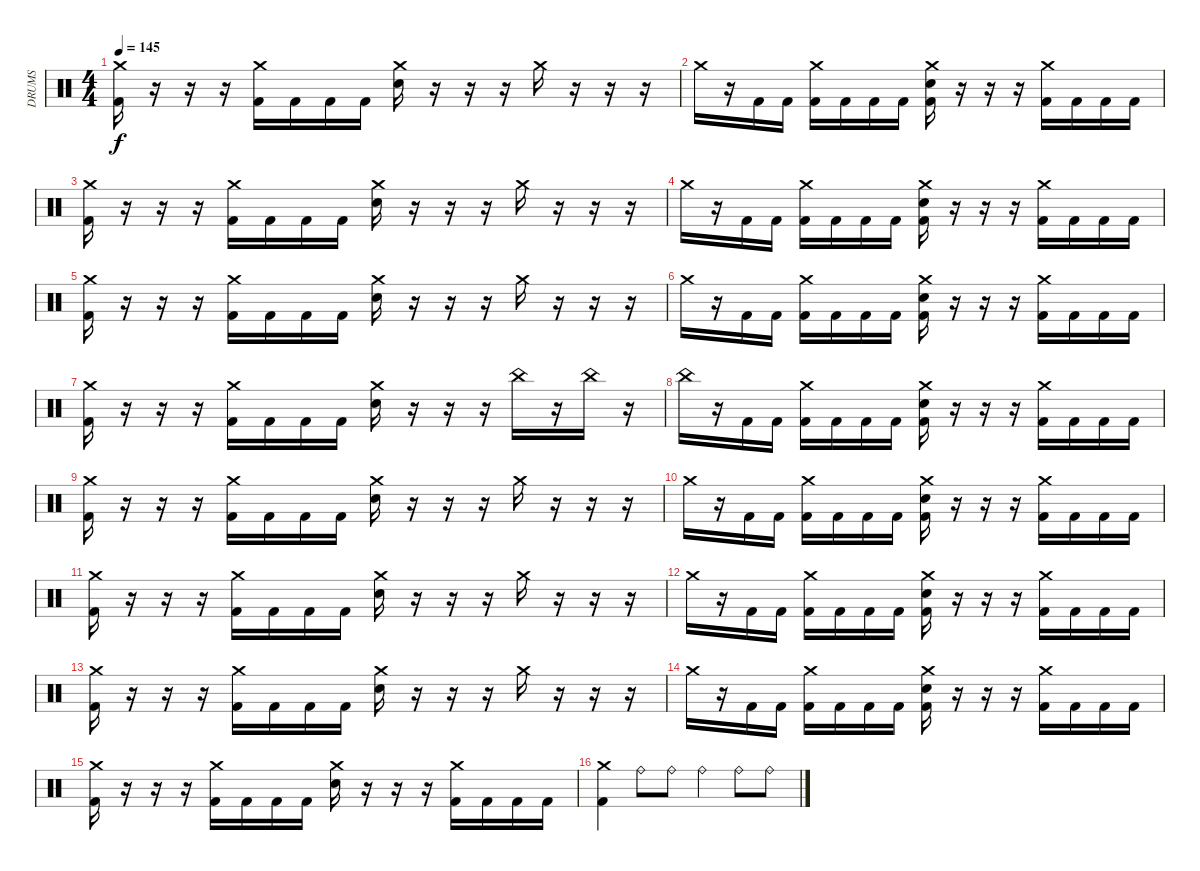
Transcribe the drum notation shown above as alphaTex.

\track ("DRUMS" "DRUMS") {instrument percussion}
\staff {score}
\articulation defaults
\ts (4 4)
\tempo 145
\clef neutral
\ks c
("Crash medium (hit)" "Kick (hit) 2").16{dy f} r.16 r.16 r.16 ("Crash medium (hit)" "Kick (hit) 2").16 "Kick (hit) 2".16 "Kick (hit) 2".16 "Kick (hit) 2".16 ("Crash medium (hit)" "Electric Snare (hit)").16 r.16 r.16 r.16 "Crash medium (hit)".16 r.16 r.16 r.16 |
"Crash medium (hit)".16 r.16 "Kick (hit) 2".16 "Kick (hit) 2".16 ("Crash medium (hit)" "Kick (hit) 2").16 "Kick (hit) 2".16 "Kick (hit) 2".16 "Kick (hit) 2".16 ("Crash medium (hit)" "Electric Snare (hit)" "Kick (hit) 2").16 r.16 r.16 r.16 ("Crash medium (hit)" "Kick (hit) 2").16 "Kick (hit) 2".16 "Kick (hit) 2".16 "Kick (hit) 2".16 |
("Crash medium (hit)" "Kick (hit) 2").16 r.16 r.16 r.16 ("Crash medium (hit)" "Kick (hit) 2").16 "Kick (hit) 2".16 "Kick (hit) 2".16 "Kick (hit) 2".16 ("Crash medium (hit)" "Electric Snare (hit)").16 r.16 r.16 r.16 "Crash medium (hit)".16 r.16 r.16 r.16 |
"Crash medium (hit)".16 r.16 "Kick (hit) 2".16 "Kick (hit) 2".16 ("Crash medium (hit)" "Kick (hit) 2").16 "Kick (hit) 2".16 "Kick (hit) 2".16 "Kick (hit) 2".16 ("Crash medium (hit)" "Electric Snare (hit)" "Kick (hit) 2").16 r.16 r.16 r.16 ("Crash medium (hit)" "Kick (hit) 2").16 "Kick (hit) 2".16 "Kick (hit) 2".16 "Kick (hit) 2".16 |
("Crash medium (hit)" "Kick (hit) 2").16 r.16 r.16 r.16 ("Crash medium (hit)" "Kick (hit) 2").16 "Kick (hit) 2".16 "Kick (hit) 2".16 "Kick (hit) 2".16 ("Crash medium (hit)" "Electric Snare (hit)").16 r.16 r.16 r.16 "Crash medium (hit)".16 r.16 r.16 r.16 |
"Crash medium (hit)".16 r.16 "Kick (hit) 2".16 "Kick (hit) 2".16 ("Crash medium (hit)" "Kick (hit) 2").16 "Kick (hit) 2".16 "Kick (hit) 2".16 "Kick (hit) 2".16 ("Crash medium (hit)" "Electric Snare (hit)" "Kick (hit) 2").16 r.16 r.16 r.16 ("Crash medium (hit)" "Kick (hit) 2").16 "Kick (hit) 2".16 "Kick (hit) 2".16 "Kick (hit) 2".16 |
("Crash medium (hit)" "Kick (hit) 2").16 r.16 r.16 r.16 ("Crash medium (hit)" "Kick (hit) 2").16 "Kick (hit) 2".16 "Kick (hit) 2".16 "Kick (hit) 2".16 ("Crash medium (hit)" "Electric Snare (hit)").16 r.16 r.16 r.16 "China (hit)".16 r.16 "China (hit)".16 r.16 |
"China (hit)".16 r.16 "Kick (hit) 2".16 "Kick (hit) 2".16 ("Crash medium (hit)" "Kick (hit) 2").16 "Kick (hit) 2".16 "Kick (hit) 2".16 "Kick (hit) 2".16 ("Crash medium (hit)" "Electric Snare (hit)" "Kick (hit) 2").16 r.16 r.16 r.16 ("Crash medium (hit)" "Kick (hit) 2").16 "Kick (hit) 2".16 "Kick (hit) 2".16 "Kick (hit) 2".16 |
("Crash medium (hit)" "Kick (hit) 2").16 r.16 r.16 r.16 ("Crash medium (hit)" "Kick (hit) 2").16 "Kick (hit) 2".16 "Kick (hit) 2".16 "Kick (hit) 2".16 ("Crash medium (hit)" "Electric Snare (hit)").16 r.16 r.16 r.16 "Crash medium (hit)".16 r.16 r.16 r.16 |
"Crash medium (hit)".16 r.16 "Kick (hit) 2".16 "Kick (hit) 2".16 ("Crash medium (hit)" "Kick (hit) 2").16 "Kick (hit) 2".16 "Kick (hit) 2".16 "Kick (hit) 2".16 ("Crash medium (hit)" "Electric Snare (hit)" "Kick (hit) 2").16 r.16 r.16 r.16 ("Crash medium (hit)" "Kick (hit) 2").16 "Kick (hit) 2".16 "Kick (hit) 2".16 "Kick (hit) 2".16 |
("Crash medium (hit)" "Kick (hit) 2").16 r.16 r.16 r.16 ("Crash medium (hit)" "Kick (hit) 2").16 "Kick (hit) 2".16 "Kick (hit) 2".16 "Kick (hit) 2".16 ("Crash medium (hit)" "Electric Snare (hit)").16 r.16 r.16 r.16 "Crash medium (hit)".16 r.16 r.16 r.16 |
"Crash medium (hit)".16 r.16 "Kick (hit) 2".16 "Kick (hit) 2".16 ("Crash medium (hit)" "Kick (hit) 2").16 "Kick (hit) 2".16 "Kick (hit) 2".16 "Kick (hit) 2".16 ("Crash medium (hit)" "Electric Snare (hit)" "Kick (hit) 2").16 r.16 r.16 r.16 ("Crash medium (hit)" "Kick (hit) 2").16 "Kick (hit) 2".16 "Kick (hit) 2".16 "Kick (hit) 2".16 |
("Crash medium (hit)" "Kick (hit) 2").16 r.16 r.16 r.16 ("Crash medium (hit)" "Kick (hit) 2").16 "Kick (hit) 2".16 "Kick (hit) 2".16 "Kick (hit) 2".16 ("Crash medium (hit)" "Electric Snare (hit)").16 r.16 r.16 r.16 "Crash medium (hit)".16 r.16 r.16 r.16 |
"Crash medium (hit)".16 r.16 "Kick (hit) 2".16 "Kick (hit) 2".16 ("Crash medium (hit)" "Kick (hit) 2").16 "Kick (hit) 2".16 "Kick (hit) 2".16 "Kick (hit) 2".16 ("Crash medium (hit)" "Electric Snare (hit)" "Kick (hit) 2").16 r.16 r.16 r.16 ("Crash medium (hit)" "Kick (hit) 2").16 "Kick (hit) 2".16 "Kick (hit) 2".16 "Kick (hit) 2".16 |
("Crash medium (hit)" "Kick (hit) 2").16 r.16 r.16 r.16 ("Crash medium (hit)" "Kick (hit) 2").16 "Kick (hit) 2".16 "Kick (hit) 2".16 "Kick (hit) 2".16 ("Crash medium (hit)" "Electric Snare (hit)").16 r.16 r.16 r.16 ("Crash medium (hit)" "Kick (hit) 2").16 "Kick (hit) 2".16 "Kick (hit) 2".16 "Kick (hit) 2".16 |
("Crash medium (hit)" "Kick (hit) 2").4 "Ride (bell)".8 "Ride (bell)".8 "Ride (bell)".4 "Ride (bell)".8 "Ride (bell)".8
